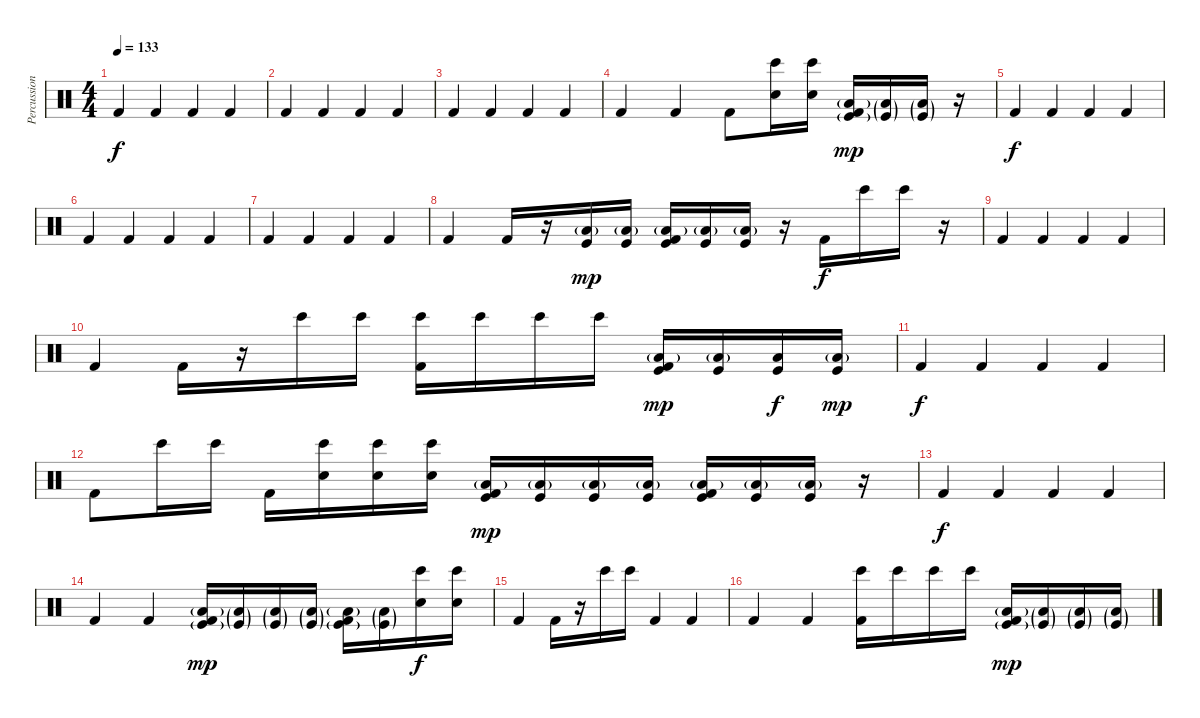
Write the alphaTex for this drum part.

\track ("Percussion" "Percussion") {instrument percussion}
\staff {score}
\articulation defaults
\ts (4 4)
\tempo 133
\clef neutral
\ks c "Kick (hit) 2".4{dy f} "Kick (hit) 2".4 "Kick (hit) 2".4 "Kick (hit) 2".4
|
"Kick (hit) 2".4 "Kick (hit) 2".4 "Kick (hit) 2".4 "Kick (hit) 2".4 |
"Kick (hit) 2".4 "Kick (hit) 2".4 "Kick (hit) 2".4 "Kick (hit) 2".4 |
"Kick (hit) 2".4 "Kick (hit) 2".4 "Kick (hit) 2".8 ("Hand Clap (hit)" "Bongo High (hit)").16 ("Hand Clap (hit)" "Bongo High (hit)").16 ("Low Floor Tom (hit)"{g} "Kick (hit)"{g} "Kick (hit) 2").16{dy mp} ("Low Floor Tom (hit)"{g} "Kick (hit)"{g}).16 ("Low Floor Tom (hit)"{g} "Kick (hit)"{g}).16 r.16 |
"Kick (hit) 2".4{dy f} "Kick (hit) 2".4 "Kick (hit) 2".4 "Kick (hit) 2".4 |
"Kick (hit) 2".4 "Kick (hit) 2".4 "Kick (hit) 2".4 "Kick (hit) 2".4 |
"Kick (hit) 2".4 "Kick (hit) 2".4 "Kick (hit) 2".4 "Kick (hit) 2".4 |
"Kick (hit) 2".4 "Kick (hit) 2".16 r.16 ("Low Floor Tom (hit)"{g} "Kick (hit)").16{dy mp} ("Low Floor Tom (hit)"{g} "Kick (hit)").16 ("Low Floor Tom (hit)"{g} "Kick (hit)" "Kick (hit) 2").16 ("Low Floor Tom (hit)"{g} "Kick (hit)").16 ("Low Floor Tom (hit)"{g} "Kick (hit)").16 r.16 "Kick (hit) 2".16{dy f} "Bongo High (hit)".16 "Bongo High (hit)".16 r.16 |
"Kick (hit) 2".4 "Kick (hit) 2".4 "Kick (hit) 2".4 "Kick (hit) 2".4 |
"Kick (hit) 2".4 "Kick (hit) 2".16 r.16 "Bongo High (hit)".16 "Bongo High (hit)".16 ("Bongo High (hit)" "Kick (hit) 2").16 "Bongo High (hit)".16 "Bongo High (hit)".16 "Bongo High (hit)".16 ("Low Floor Tom (hit)"{g} "Kick (hit)" "Kick (hit) 2").16{dy mp} ("Low Floor Tom (hit)"{g} "Kick (hit)").16 ("Low Floor Tom (hit)" "Kick (hit)").16{dy f} ("Low Floor Tom (hit)"{g} "Kick (hit)").16{dy mp} |
"Kick (hit) 2".4{dy f} "Kick (hit) 2".4 "Kick (hit) 2".4 "Kick (hit) 2".4 |
"Kick (hit) 2".8 "Bongo High (hit)".16 "Bongo High (hit)".16 "Kick (hit) 2".16 ("Bongo High (hit)" "Hand Clap (hit)").16 ("Bongo High (hit)" "Hand Clap (hit)").16 ("Bongo High (hit)" "Hand Clap (hit)").16 ("Low Floor Tom (hit)"{g} "Kick (hit)" "Kick (hit) 2").16{dy mp} ("Low Floor Tom (hit)"{g} "Kick (hit)").16 ("Low Floor Tom (hit)"{g} "Kick (hit)").16 ("Low Floor Tom (hit)"{g} "Kick (hit)").16 ("Low Floor Tom (hit)"{g} "Kick (hit)" "Kick (hit) 2").16 ("Low Floor Tom (hit)"{g} "Kick (hit)").16 ("Low Floor Tom (hit)"{g} "Kick (hit)").16 r.16 |
"Kick (hit) 2".4{dy f} "Kick (hit) 2".4 "Kick (hit) 2".4 "Kick (hit) 2".4 |
"Kick (hit) 2".4 "Kick (hit) 2".4 ("Low Floor Tom (hit)"{g} "Kick (hit)"{g} "Kick (hit) 2").16{dy mp} ("Low Floor Tom (hit)"{g} "Kick (hit)"{g}).16 ("Low Floor Tom (hit)"{g} "Kick (hit)"{g}).16 ("Low Floor Tom (hit)"{g} "Kick (hit)"{g}).16 ("Low Floor Tom (hit)"{g} "Kick (hit)"{g} "Kick (hit) 2").16 ("Low Floor Tom (hit)"{g} "Kick (hit)"{g}).16 ("Hand Clap (hit)" "Bongo High (hit)").16{dy f} ("Hand Clap (hit)" "Bongo High (hit)").16 |
"Kick (hit) 2".4 "Kick (hit) 2".16 r.16 "Bongo High (hit)".16 "Bongo High (hit)".16 "Kick (hit) 2".4 "Kick (hit) 2".4 |
"Kick (hit) 2".4 "Kick (hit) 2".4 ("Bongo High (hit)" "Kick (hit) 2").16 "Bongo High (hit)".16 "Bongo High (hit)".16 "Bongo High (hit)".16 ("Low Floor Tom (hit)"{g} "Kick (hit)"{g} "Kick (hit) 2").16{dy mp} ("Low Floor Tom (hit)"{g} "Kick (hit)"{g}).16 ("Low Floor Tom (hit)"{g} "Kick (hit)"{g}).16 ("Low Floor Tom (hit)"{g} "Kick (hit)"{g}).16
